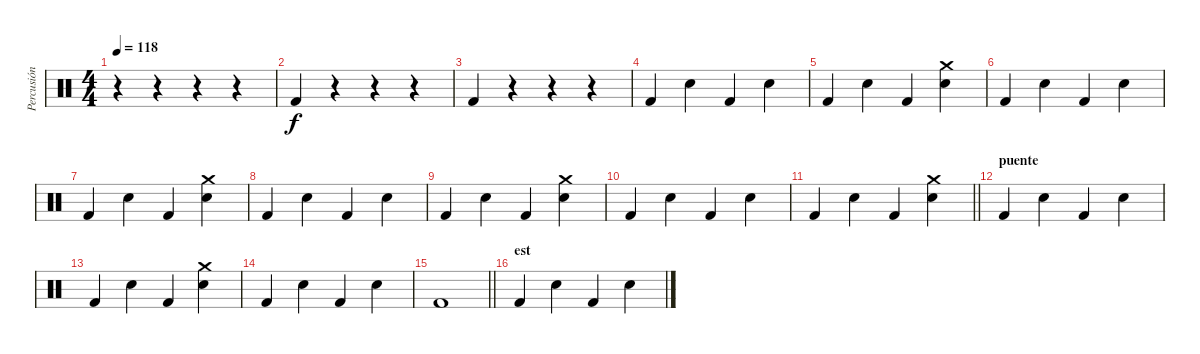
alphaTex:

\track ("Percusión" "Percusión") {instrument percussion}
\staff {score}
\articulation defaults
\ts (4 4)
\tempo 118
\clef neutral
\ks c
r.4{dy f} r.4 r.4 r.4 |
"Kick (hit) 2".4 r.4 r.4 r.4 |
"Kick (hit) 2".4 r.4 r.4 r.4 |
"Kick (hit) 2".4 "Hand Clap (hit)".4 "Kick (hit) 2".4 "Hand Clap (hit)".4 |
"Kick (hit) 2".4 "Hand Clap (hit)".4 "Kick (hit) 2".4 ("Hand Clap (hit)" "Crash medium (hit)").4 |
"Kick (hit) 2".4 "Hand Clap (hit)".4 "Kick (hit) 2".4 "Hand Clap (hit)".4 |
"Kick (hit) 2".4 "Hand Clap (hit)".4 "Kick (hit) 2".4 ("Hand Clap (hit)" "Crash medium (hit)").4 |
"Kick (hit) 2".4 "Hand Clap (hit)".4 "Kick (hit) 2".4 "Hand Clap (hit)".4 |
"Kick (hit) 2".4 "Hand Clap (hit)".4 "Kick (hit) 2".4 ("Hand Clap (hit)" "Crash medium (hit)").4 |
"Kick (hit) 2".4 "Hand Clap (hit)".4 "Kick (hit) 2".4 "Hand Clap (hit)".4 |
\barLineRight lightlight "Kick (hit) 2".4 "Hand Clap (hit)".4 "Kick (hit) 2".4
("Hand Clap (hit)" "Crash medium (hit)").4 |
\section ("" "puente")
"Kick (hit) 2".4 "Hand Clap (hit)".4 "Kick (hit) 2".4 "Hand Clap (hit)".4 |
"Kick (hit) 2".4 "Hand Clap (hit)".4 "Kick (hit) 2".4 ("Hand Clap (hit)" "Crash medium (hit)").4 |
"Kick (hit) 2".4 "Hand Clap (hit)".4 "Kick (hit) 2".4 "Hand Clap (hit)".4 |
\barLineRight lightlight "Kick (hit) 2".1
|
\section ("" "est")
"Kick (hit) 2".4 "Hand Clap (hit)".4 "Kick (hit) 2".4 "Hand Clap (hit)".4
